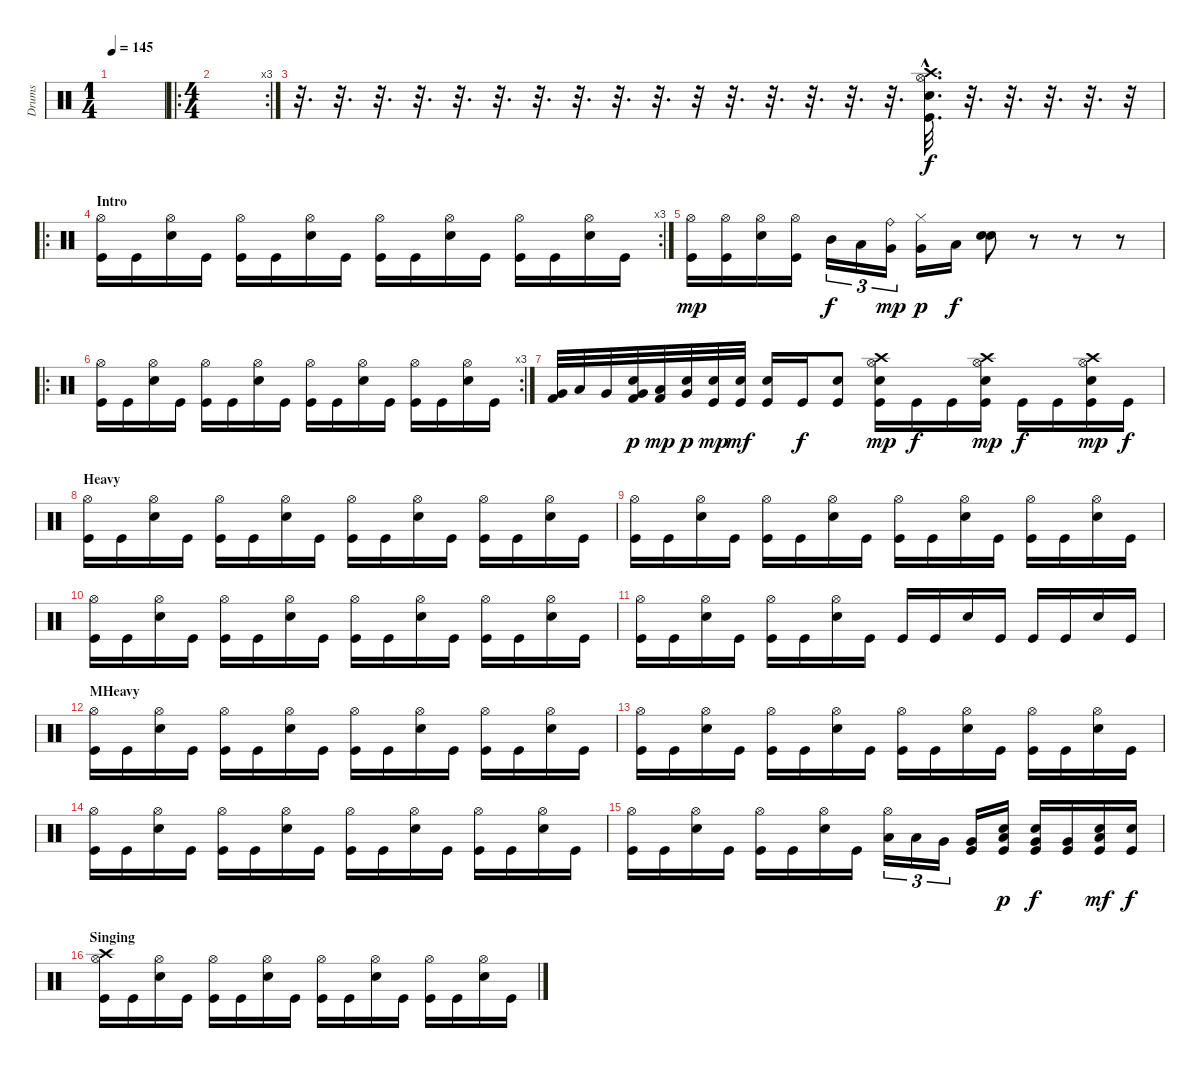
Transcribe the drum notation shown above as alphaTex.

\track ("Drums" "Drums") {instrument percussion}
\staff {score}
\articulation defaults
\ts (1 4)
\tempo 145
\clef neutral
\ks c
|
\ro
\rc 3
\ts (4 4)
|
r.32{d} r.32{d} r.32{d} r.32{d} r.32{d} r.32{d} r.32{d} r.32{d} r.32{d} r.32{d} r.32 r.32{d} r.32{d} r.32{d} r.32{d} r.32{d} ("Crash high (hit)"{hac} "Hi-Hat (open)"{hac} "Snare (hit) 2"{hac} "Kick (hit)"{hac}).32{d} r.32{d} r.32{d} r.32{d} r.32{d} r.32 |
\ro
\rc 3
\section ("" "Intro")
("Hi-Hat (open)" "Kick (hit)").16 "Kick (hit)".16 ("Hi-Hat (open)" "Electric Snare (hit)").16 "Kick (hit)".16 ("Hi-Hat (open)" "Kick (hit)").16 "Kick (hit)".16 ("Hi-Hat (open)" "Electric Snare (hit)").16 "Kick (hit)".16 ("Hi-Hat (open)" "Kick (hit)").16 "Kick (hit)".16 ("Hi-Hat (open)" "Electric Snare (hit)").16 "Kick (hit)".16 ("Hi-Hat (open)" "Kick (hit)").16 "Kick (hit)".16 ("Hi-Hat (open)" "Electric Snare (hit)").16 "Kick (hit)".16 |
("Hi-Hat (open)" "Kick (hit)").16{dy mp} ("Hi-Hat (open)" "Kick (hit)").16 ("Hi-Hat (open)" "Snare (hit) 2").16 ("Hi-Hat (open)" "Kick (hit)").16 "Mid Tom (hit)".16{tu (3 2) dy f} "Low Tom (hit)".16{tu (3 2)} ("Ride (bell)" "Very Low Tom (hit)").16{tu (3 2) dy mp} ("Hi-Hat (closed)" "Very Low Tom (hit)").16{dy p} "Low Floor Tom (hit)".16{dy f} ("Snare (hit) 2" "Electric Snare (hit)").8 r.8 r.8 r.8 |
\ro
\rc 3
("Hi-Hat (open)" "Kick (hit)").16 "Kick (hit)".16 ("Hi-Hat (open)" "Electric Snare (hit)").16 "Kick (hit)".16 ("Hi-Hat (open)" "Kick (hit)").16 "Kick (hit)".16 ("Hi-Hat (open)" "Electric Snare (hit)").16 "Kick (hit)".16 ("Hi-Hat (open)" "Kick (hit)").16 "Kick (hit)".16 ("Hi-Hat (open)" "Electric Snare (hit)").16 "Kick (hit)".16 ("Hi-Hat (open)" "Kick (hit)").16 "Kick (hit)".16 ("Hi-Hat (open)" "Electric Snare (hit)").16 "Kick (hit)".16 |
("Very Low Tom (hit)" "Kick (hit) 2").32 "Low Floor Tom (hit)".32 "Very Low Tom (hit)".32 ("Very Low Tom (hit)" "Snare (hit) 2" "Kick (hit) 2").32{dy p} ("Low Tom (hit)" "Kick (hit) 2").32{dy mp} ("Very Low Tom (hit)" "Snare (hit) 2").32{dy p} ("Snare (hit) 2" "Kick (hit)").32{dy mp} ("Snare (hit) 2" "Kick (hit)").32{dy mf} ("Snare (hit) 2" "Kick (hit)").16 "Kick (hit)".16{dy f} ("Snare (hit) 2" "Kick (hit)").8 ("Crash high (hit)" "Hi-Hat (open)" "Electric Snare (hit)" "Kick (hit)").16{dy mp} "Kick (hit)".16{dy f} "Kick (hit)".16 ("Crash high (hit)" "Hi-Hat (open)" "Electric Snare (hit)" "Kick (hit)").16{dy mp} "Kick (hit)".16{dy f} "Kick (hit)".16 ("Crash high (hit)" "Hi-Hat (open)" "Electric Snare (hit)" "Kick (hit)").16{dy mp} "Kick (hit)".16{dy f} |
\section ("" "Heavy")
("Hi-Hat (open)" "Kick (hit)").16 "Kick (hit)".16 ("Hi-Hat (open)" "Electric Snare (hit)").16 "Kick (hit)".16 ("Hi-Hat (open)" "Kick (hit)").16 "Kick (hit)".16 ("Hi-Hat (open)" "Electric Snare (hit)").16 "Kick (hit)".16 ("Hi-Hat (open)" "Kick (hit)").16 "Kick (hit)".16 ("Hi-Hat (open)" "Electric Snare (hit)").16 "Kick (hit)".16 ("Hi-Hat (open)" "Kick (hit)").16 "Kick (hit)".16 ("Hi-Hat (open)" "Electric Snare (hit)").16 "Kick (hit)".16 |
("Hi-Hat (open)" "Kick (hit)").16 "Kick (hit)".16 ("Hi-Hat (open)" "Electric Snare (hit)").16 "Kick (hit)".16 ("Hi-Hat (open)" "Kick (hit)").16 "Kick (hit)".16 ("Hi-Hat (open)" "Electric Snare (hit)").16 "Kick (hit)".16 ("Hi-Hat (open)" "Kick (hit)").16 "Kick (hit)".16 ("Hi-Hat (open)" "Electric Snare (hit)").16 "Kick (hit)".16 ("Hi-Hat (open)" "Kick (hit)").16 "Kick (hit)".16 ("Hi-Hat (open)" "Electric Snare (hit)").16 "Kick (hit)".16 |
("Hi-Hat (open)" "Kick (hit)").16 "Kick (hit)".16 ("Hi-Hat (open)" "Electric Snare (hit)").16 "Kick (hit)".16 ("Hi-Hat (open)" "Kick (hit)").16 "Kick (hit)".16 ("Hi-Hat (open)" "Electric Snare (hit)").16 "Kick (hit)".16 ("Hi-Hat (open)" "Kick (hit)").16 "Kick (hit)".16 ("Hi-Hat (open)" "Electric Snare (hit)").16 "Kick (hit)".16 ("Hi-Hat (open)" "Kick (hit)").16 "Kick (hit)".16 ("Hi-Hat (open)" "Electric Snare (hit)").16 "Kick (hit)".16 |
("Hi-Hat (open)" "Kick (hit)").16 "Kick (hit)".16 ("Hi-Hat (open)" "Electric Snare (hit)").16 "Kick (hit)".16 ("Hi-Hat (open)" "Kick (hit)").16 "Kick (hit)".16 ("Hi-Hat (open)" "Electric Snare (hit)").16 "Kick (hit)".16 "Kick (hit)".16 "Kick (hit)".16 "Electric Snare (hit)".16 "Kick (hit)".16 "Kick (hit)".16 "Kick (hit)".16 "Electric Snare (hit)".16 "Kick (hit)".16 |
\section ("" "MHeavy")
("Hi-Hat (open)" "Kick (hit)").16 "Kick (hit)".16 ("Hi-Hat (open)" "Electric Snare (hit)").16 "Kick (hit)".16 ("Hi-Hat (open)" "Kick (hit)").16 "Kick (hit)".16 ("Hi-Hat (open)" "Electric Snare (hit)").16 "Kick (hit)".16 ("Hi-Hat (open)" "Kick (hit)").16 "Kick (hit)".16 ("Hi-Hat (open)" "Electric Snare (hit)").16 "Kick (hit)".16 ("Hi-Hat (open)" "Kick (hit)").16 "Kick (hit)".16 ("Hi-Hat (open)" "Electric Snare (hit)").16 "Kick (hit)".16 |
("Hi-Hat (open)" "Kick (hit)").16 "Kick (hit)".16 ("Hi-Hat (open)" "Electric Snare (hit)").16 "Kick (hit)".16 ("Hi-Hat (open)" "Kick (hit)").16 "Kick (hit)".16 ("Hi-Hat (open)" "Electric Snare (hit)").16 "Kick (hit)".16 ("Hi-Hat (open)" "Kick (hit)").16 "Kick (hit)".16 ("Hi-Hat (open)" "Electric Snare (hit)").16 "Kick (hit)".16 ("Hi-Hat (open)" "Kick (hit)").16 "Kick (hit)".16 ("Hi-Hat (open)" "Electric Snare (hit)").16 "Kick (hit)".16 |
("Hi-Hat (open)" "Kick (hit)").16 "Kick (hit)".16 ("Hi-Hat (open)" "Electric Snare (hit)").16 "Kick (hit)".16 ("Hi-Hat (open)" "Kick (hit)").16 "Kick (hit)".16 ("Hi-Hat (open)" "Electric Snare (hit)").16 "Kick (hit)".16 ("Hi-Hat (open)" "Kick (hit)").16 "Kick (hit)".16 ("Hi-Hat (open)" "Electric Snare (hit)").16 "Kick (hit)".16 ("Hi-Hat (open)" "Kick (hit)").16 "Kick (hit)".16 ("Hi-Hat (open)" "Electric Snare (hit)").16 "Kick (hit)".16 |
("Hi-Hat (open)" "Kick (hit)").16 "Kick (hit)".16 ("Hi-Hat (open)" "Electric Snare (hit)").16 "Kick (hit)".16 ("Hi-Hat (open)" "Kick (hit)").16 "Kick (hit)".16 ("Hi-Hat (open)" "Electric Snare (hit)").16 "Kick (hit)".16 ("Hi-Hat (open)" "Low Tom (hit)").16{tu (3 2)} "Low Tom (hit)".16{tu (3 2)} "Very Low Tom (hit)".16{tu (3 2)} ("Very Low Tom (hit)" "Kick (hit)").16 ("Snare (hit) 2" "Low Tom (hit)" "Kick (hit)").16{dy p} ("Snare (hit) 2" "Very Low Tom (hit)" "Kick (hit)").16{dy f} ("Very Low Tom (hit)" "Kick (hit)").16 ("Snare (hit) 2" "Low Floor Tom (hit)" "Kick (hit)").16{dy mf} ("Snare (hit) 2" "Kick (hit)").16{dy f} |
\section ("" "Singing")
("Hi-Hat (open)" "Crash high (hit)" "Kick (hit)").16 "Kick (hit)".16 ("Hi-Hat (open)" "Electric Snare (hit)").16 "Kick (hit)".16 ("Hi-Hat (open)" "Kick (hit)").16 "Kick (hit)".16 ("Hi-Hat (open)" "Electric Snare (hit)").16 "Kick (hit)".16 ("Hi-Hat (open)" "Kick (hit)").16 "Kick (hit)".16 ("Hi-Hat (open)" "Electric Snare (hit)").16 "Kick (hit)".16 ("Hi-Hat (open)" "Kick (hit)").16 "Kick (hit)".16 ("Hi-Hat (open)" "Electric Snare (hit)").16 "Kick (hit)".16
